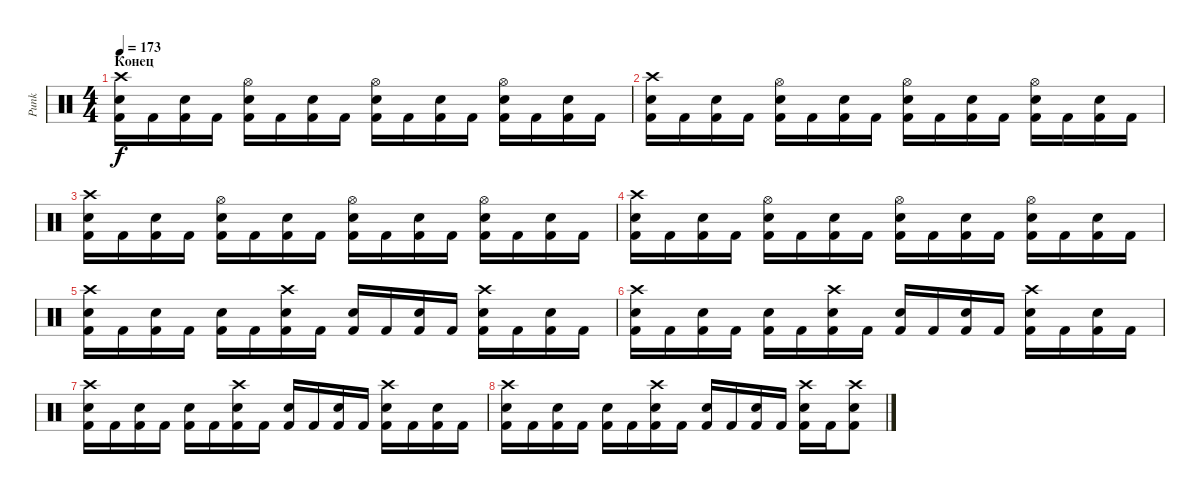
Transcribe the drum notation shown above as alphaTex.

\track ("Punk" "Punk") {instrument percussion}
\staff {score}
\articulation defaults
\ts (4 4)
\section ("" "Конец")
\tempo 173
\clef neutral
\ks c
("Crash high (hit)" "Electric Snare (hit)" "Kick (hit) 2").16{dy f} "Kick (hit) 2".16 ("Electric Snare (hit)" "Kick (hit) 2").16 "Kick (hit) 2".16 ("Hi-Hat (open)" "Electric Snare (hit)" "Kick (hit) 2").16 "Kick (hit) 2".16 ("Electric Snare (hit)" "Kick (hit) 2").16 "Kick (hit) 2".16 ("Hi-Hat (open)" "Electric Snare (hit)" "Kick (hit) 2").16 "Kick (hit) 2".16 ("Electric Snare (hit)" "Kick (hit) 2").16 "Kick (hit) 2".16 ("Hi-Hat (open)" "Electric Snare (hit)" "Kick (hit) 2").16 "Kick (hit) 2".16 ("Electric Snare (hit)" "Kick (hit) 2").16 "Kick (hit) 2".16 |
("Crash high (hit)" "Electric Snare (hit)" "Kick (hit) 2").16 "Kick (hit) 2".16 ("Electric Snare (hit)" "Kick (hit) 2").16 "Kick (hit) 2".16 ("Hi-Hat (open)" "Electric Snare (hit)" "Kick (hit) 2").16 "Kick (hit) 2".16 ("Electric Snare (hit)" "Kick (hit) 2").16 "Kick (hit) 2".16 ("Hi-Hat (open)" "Electric Snare (hit)" "Kick (hit) 2").16 "Kick (hit) 2".16 ("Electric Snare (hit)" "Kick (hit) 2").16 "Kick (hit) 2".16 ("Hi-Hat (open)" "Electric Snare (hit)" "Kick (hit) 2").16 "Kick (hit) 2".16 ("Electric Snare (hit)" "Kick (hit) 2").16 "Kick (hit) 2".16 |
("Crash high (hit)" "Electric Snare (hit)" "Kick (hit) 2").16 "Kick (hit) 2".16 ("Electric Snare (hit)" "Kick (hit) 2").16 "Kick (hit) 2".16 ("Hi-Hat (open)" "Electric Snare (hit)" "Kick (hit) 2").16 "Kick (hit) 2".16 ("Electric Snare (hit)" "Kick (hit) 2").16 "Kick (hit) 2".16 ("Hi-Hat (open)" "Electric Snare (hit)" "Kick (hit) 2").16 "Kick (hit) 2".16 ("Electric Snare (hit)" "Kick (hit) 2").16 "Kick (hit) 2".16 ("Hi-Hat (open)" "Electric Snare (hit)" "Kick (hit) 2").16 "Kick (hit) 2".16 ("Electric Snare (hit)" "Kick (hit) 2").16 "Kick (hit) 2".16 |
("Crash high (hit)" "Electric Snare (hit)" "Kick (hit) 2").16 "Kick (hit) 2".16 ("Electric Snare (hit)" "Kick (hit) 2").16 "Kick (hit) 2".16 ("Hi-Hat (open)" "Electric Snare (hit)" "Kick (hit) 2").16 "Kick (hit) 2".16 ("Electric Snare (hit)" "Kick (hit) 2").16 "Kick (hit) 2".16 ("Hi-Hat (open)" "Electric Snare (hit)" "Kick (hit) 2").16 "Kick (hit) 2".16 ("Electric Snare (hit)" "Kick (hit) 2").16 "Kick (hit) 2".16 ("Hi-Hat (open)" "Electric Snare (hit)" "Kick (hit) 2").16 "Kick (hit) 2".16 ("Electric Snare (hit)" "Kick (hit) 2").16 "Kick (hit) 2".16 |
("Crash high (hit)" "Electric Snare (hit)" "Kick (hit) 2").16 "Kick (hit) 2".16 ("Electric Snare (hit)" "Kick (hit) 2").16 "Kick (hit) 2".16 ("Electric Snare (hit)" "Kick (hit) 2").16 "Kick (hit) 2".16 ("Crash high (hit)" "Electric Snare (hit)" "Kick (hit) 2").16 "Kick (hit) 2".16 ("Electric Snare (hit)" "Kick (hit) 2").16 "Kick (hit) 2".16 ("Electric Snare (hit)" "Kick (hit) 2").16 "Kick (hit) 2".16 ("Crash high (hit)" "Electric Snare (hit)" "Kick (hit) 2").16 "Kick (hit) 2".16 ("Electric Snare (hit)" "Kick (hit) 2").16 "Kick (hit) 2".16 |
("Crash high (hit)" "Electric Snare (hit)" "Kick (hit) 2").16 "Kick (hit) 2".16 ("Electric Snare (hit)" "Kick (hit) 2").16 "Kick (hit) 2".16 ("Electric Snare (hit)" "Kick (hit) 2").16 "Kick (hit) 2".16 ("Crash high (hit)" "Electric Snare (hit)" "Kick (hit) 2").16 "Kick (hit) 2".16 ("Electric Snare (hit)" "Kick (hit) 2").16 "Kick (hit) 2".16 ("Electric Snare (hit)" "Kick (hit) 2").16 "Kick (hit) 2".16 ("Crash high (hit)" "Electric Snare (hit)" "Kick (hit) 2").16 "Kick (hit) 2".16 ("Electric Snare (hit)" "Kick (hit) 2").16 "Kick (hit) 2".16 |
("Crash high (hit)" "Electric Snare (hit)" "Kick (hit) 2").16 "Kick (hit) 2".16 ("Electric Snare (hit)" "Kick (hit) 2").16 "Kick (hit) 2".16 ("Electric Snare (hit)" "Kick (hit) 2").16 "Kick (hit) 2".16 ("Crash high (hit)" "Electric Snare (hit)" "Kick (hit) 2").16 "Kick (hit) 2".16 ("Electric Snare (hit)" "Kick (hit) 2").16 "Kick (hit) 2".16 ("Electric Snare (hit)" "Kick (hit) 2").16 "Kick (hit) 2".16 ("Crash high (hit)" "Electric Snare (hit)" "Kick (hit) 2").16 "Kick (hit) 2".16 ("Electric Snare (hit)" "Kick (hit) 2").16 "Kick (hit) 2".16 |
("Crash high (hit)" "Electric Snare (hit)" "Kick (hit) 2").16 "Kick (hit) 2".16 ("Electric Snare (hit)" "Kick (hit) 2").16 "Kick (hit) 2".16 ("Electric Snare (hit)" "Kick (hit) 2").16 "Kick (hit) 2".16 ("Crash high (hit)" "Electric Snare (hit)" "Kick (hit) 2").16 "Kick (hit) 2".16 ("Electric Snare (hit)" "Kick (hit) 2").16 "Kick (hit) 2".16 ("Electric Snare (hit)" "Kick (hit) 2").16 "Kick (hit) 2".16 ("Crash high (hit)" "Electric Snare (hit)" "Kick (hit) 2").16 "Kick (hit) 2".16 ("Crash high (hit)" "Electric Snare (hit)" "Kick (hit) 2").8
